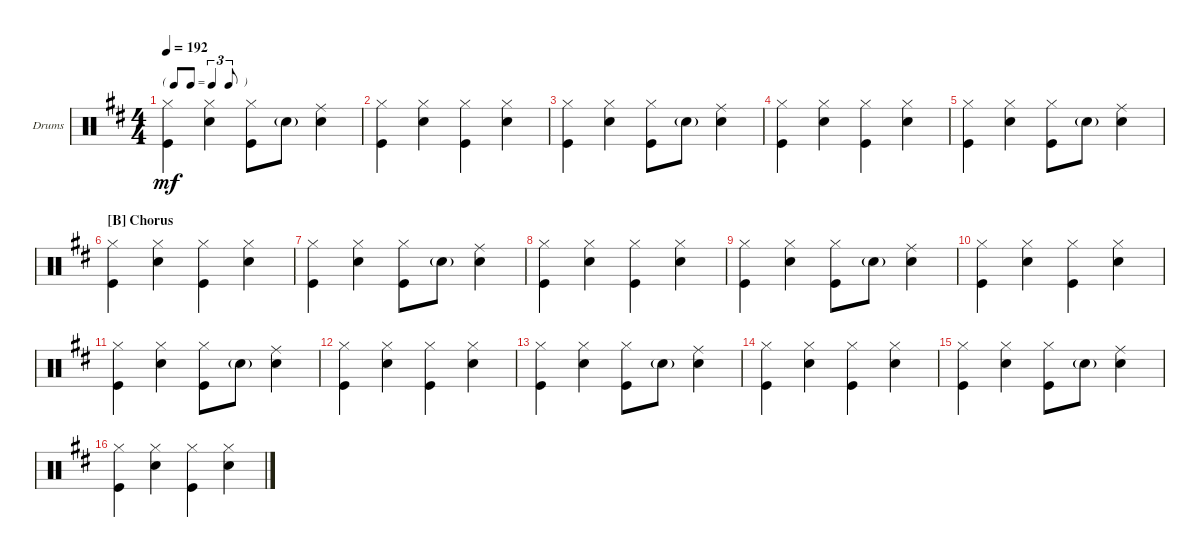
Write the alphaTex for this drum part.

\defaultSystemsLayout 4
\bracketExtendMode groupsimilarinstruments
\firstSystemTrackNameOrientation horizontal
\otherSystemsTrackNameOrientation horizontal
\track ("Drumkit" "Drums") {instrument percussion}
\staff {score}
\articulation defaults
\ts (4 4)
\tf triplet8th
\tempo 192
\clef neutral
\ks d
("Kick (hit)" "Hi-Hat (closed)").4{dy mf} ("Snare (hit) 2" "Hi-Hat (closed)").4 ("Kick (hit)" "Hi-Hat (closed)").8 "Snare (hit) 2"{g}.8 ("Snare (hit) 2" "Ride (middle)").4 |
("Kick (hit)" "Hi-Hat (closed)").4 ("Snare (hit) 2" "Hi-Hat (closed)").4 ("Kick (hit)" "Hi-Hat (closed)").4 ("Snare (hit) 2" "Hi-Hat (closed)").4 |
("Kick (hit)" "Hi-Hat (closed)").4 ("Snare (hit) 2" "Hi-Hat (closed)").4 ("Kick (hit)" "Hi-Hat (closed)").8 "Snare (hit) 2"{g}.8 ("Snare (hit) 2" "Ride (middle)").4 |
("Kick (hit)" "Hi-Hat (closed)").4 ("Snare (hit) 2" "Hi-Hat (closed)").4 ("Kick (hit)" "Hi-Hat (closed)").4 ("Snare (hit) 2" "Hi-Hat (closed)").4 |
("Kick (hit)" "Hi-Hat (closed)").4 ("Snare (hit) 2" "Hi-Hat (closed)").4 ("Kick (hit)" "Hi-Hat (closed)").8 "Snare (hit) 2"{g}.8 ("Snare (hit) 2" "Ride (middle)").4 |
\section ("B" "Chorus")
("Kick (hit)" "Hi-Hat (closed)").4 ("Snare (hit) 2" "Hi-Hat (closed)").4 ("Kick (hit)" "Hi-Hat (closed)").4 ("Snare (hit) 2" "Hi-Hat (closed)").4 |
("Kick (hit)" "Hi-Hat (closed)").4 ("Snare (hit) 2" "Hi-Hat (closed)").4 ("Kick (hit)" "Hi-Hat (closed)").8 "Snare (hit) 2"{g}.8 ("Snare (hit) 2" "Ride (middle)").4 |
("Kick (hit)" "Hi-Hat (closed)").4 ("Snare (hit) 2" "Hi-Hat (closed)").4 ("Kick (hit)" "Hi-Hat (closed)").4 ("Snare (hit) 2" "Hi-Hat (closed)").4 |
("Kick (hit)" "Hi-Hat (closed)").4 ("Snare (hit) 2" "Hi-Hat (closed)").4 ("Kick (hit)" "Hi-Hat (closed)").8 "Snare (hit) 2"{g}.8 ("Snare (hit) 2" "Ride (middle)").4 |
("Kick (hit)" "Hi-Hat (closed)").4 ("Snare (hit) 2" "Hi-Hat (closed)").4 ("Kick (hit)" "Hi-Hat (closed)").4 ("Snare (hit) 2" "Hi-Hat (closed)").4 |
("Kick (hit)" "Hi-Hat (closed)").4 ("Snare (hit) 2" "Hi-Hat (closed)").4 ("Kick (hit)" "Hi-Hat (closed)").8 "Snare (hit) 2"{g}.8 ("Snare (hit) 2" "Ride (middle)").4 |
("Kick (hit)" "Hi-Hat (closed)").4 ("Snare (hit) 2" "Hi-Hat (closed)").4 ("Kick (hit)" "Hi-Hat (closed)").4 ("Snare (hit) 2" "Hi-Hat (closed)").4 |
("Kick (hit)" "Hi-Hat (closed)").4 ("Snare (hit) 2" "Hi-Hat (closed)").4 ("Kick (hit)" "Hi-Hat (closed)").8 "Snare (hit) 2"{g}.8 ("Snare (hit) 2" "Ride (middle)").4 |
("Kick (hit)" "Hi-Hat (closed)").4 ("Snare (hit) 2" "Hi-Hat (closed)").4 ("Kick (hit)" "Hi-Hat (closed)").4 ("Snare (hit) 2" "Hi-Hat (closed)").4 |
("Kick (hit)" "Hi-Hat (closed)").4 ("Snare (hit) 2" "Hi-Hat (closed)").4 ("Kick (hit)" "Hi-Hat (closed)").8 "Snare (hit) 2"{g}.8 ("Snare (hit) 2" "Ride (middle)").4 |
("Kick (hit)" "Hi-Hat (closed)").4 ("Snare (hit) 2" "Hi-Hat (closed)").4 ("Kick (hit)" "Hi-Hat (closed)").4 ("Snare (hit) 2" "Hi-Hat (closed)").4
